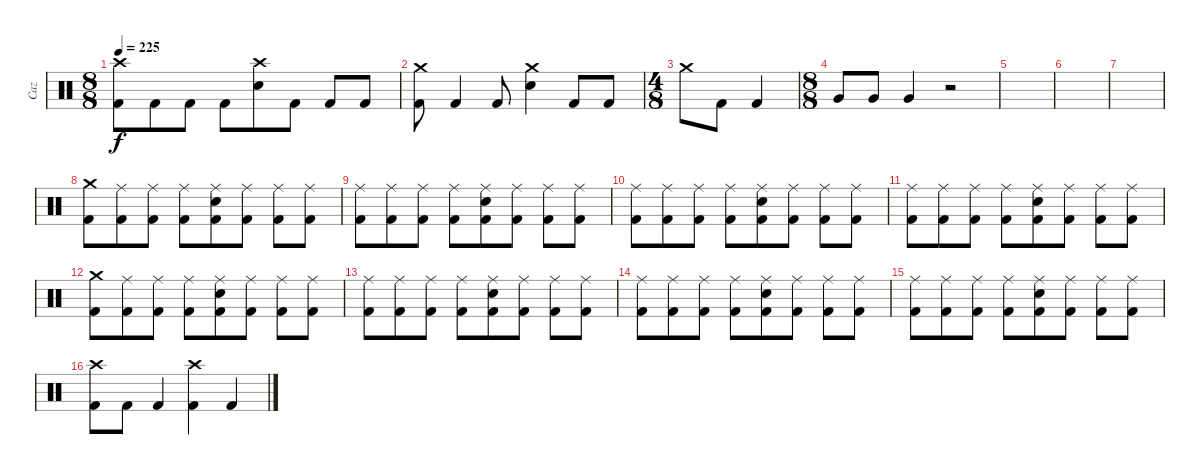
\track ("Caz" "Caz") {instrument percussion}
\staff {score}
\articulation defaults
\ts (8 8)
\tempo 225
\clef neutral
\ks c
("Crash high (hit)" "Kick (hit) 2").8{dy f} "Kick (hit) 2".8 "Kick (hit) 2".8 "Kick (hit) 2".8 ("Crash high (hit)" "Electric Snare (hit)").8 "Kick (hit) 2".8 "Kick (hit) 2".8 "Kick (hit) 2".8 |
("Crash medium (hit)" "Kick (hit) 2").8 "Kick (hit) 2".4 "Kick (hit) 2".8 ("Crash medium (hit)" "Electric Snare (hit)").4 "Kick (hit) 2".8 "Kick (hit) 2".8 |
\ts (4 8)
"Crash medium (hit)".8 "Kick (hit) 2".8 "Kick (hit) 2".4 |
\ts (8 8)
"Very Low Tom (hit)".8 "Very Low Tom (hit)".8 "Very Low Tom (hit)".4 r.2 |
|
|
|
("Crash medium (hit)" "Kick (hit) 2").8 ("Ride (middle)" "Kick (hit) 2").8 ("Ride (middle)" "Kick (hit) 2").8 ("Ride (middle)" "Kick (hit) 2").8 ("Ride (middle)" "Electric Snare (hit)" "Kick (hit) 2").8 ("Ride (middle)" "Kick (hit) 2").8 ("Ride (middle)" "Kick (hit) 2").8 ("Ride (middle)" "Kick (hit) 2").8 |
("Ride (middle)" "Kick (hit) 2").8 ("Ride (middle)" "Kick (hit) 2").8 ("Ride (middle)" "Kick (hit) 2").8 ("Ride (middle)" "Kick (hit) 2").8 ("Ride (middle)" "Electric Snare (hit)" "Kick (hit) 2").8 ("Ride (middle)" "Kick (hit) 2").8 ("Ride (middle)" "Kick (hit) 2").8 ("Ride (middle)" "Kick (hit) 2").8 |
("Ride (middle)" "Kick (hit) 2").8 ("Ride (middle)" "Kick (hit) 2").8 ("Ride (middle)" "Kick (hit) 2").8 ("Ride (middle)" "Kick (hit) 2").8 ("Ride (middle)" "Electric Snare (hit)" "Kick (hit) 2").8 ("Ride (middle)" "Kick (hit) 2").8 ("Ride (middle)" "Kick (hit) 2").8 ("Ride (middle)" "Kick (hit) 2").8 |
("Ride (middle)" "Kick (hit) 2").8 ("Ride (middle)" "Kick (hit) 2").8 ("Ride (middle)" "Kick (hit) 2").8 ("Ride (middle)" "Kick (hit) 2").8 ("Ride (middle)" "Electric Snare (hit)" "Kick (hit) 2").8 ("Ride (middle)" "Kick (hit) 2").8 ("Ride (middle)" "Kick (hit) 2").8 ("Ride (middle)" "Kick (hit) 2").8 |
("Crash medium (hit)" "Kick (hit) 2").8 ("Ride (middle)" "Kick (hit) 2").8 ("Ride (middle)" "Kick (hit) 2").8 ("Ride (middle)" "Kick (hit) 2").8 ("Ride (middle)" "Electric Snare (hit)" "Kick (hit) 2").8 ("Ride (middle)" "Kick (hit) 2").8 ("Ride (middle)" "Kick (hit) 2").8 ("Ride (middle)" "Kick (hit) 2").8 |
("Ride (middle)" "Kick (hit) 2").8 ("Ride (middle)" "Kick (hit) 2").8 ("Ride (middle)" "Kick (hit) 2").8 ("Ride (middle)" "Kick (hit) 2").8 ("Ride (middle)" "Electric Snare (hit)" "Kick (hit) 2").8 ("Ride (middle)" "Kick (hit) 2").8 ("Ride (middle)" "Kick (hit) 2").8 ("Ride (middle)" "Kick (hit) 2").8 |
("Ride (middle)" "Kick (hit) 2").8 ("Ride (middle)" "Kick (hit) 2").8 ("Ride (middle)" "Kick (hit) 2").8 ("Ride (middle)" "Kick (hit) 2").8 ("Ride (middle)" "Electric Snare (hit)" "Kick (hit) 2").8 ("Ride (middle)" "Kick (hit) 2").8 ("Ride (middle)" "Kick (hit) 2").8 ("Ride (middle)" "Kick (hit) 2").8 |
("Ride (middle)" "Kick (hit) 2").8 ("Ride (middle)" "Kick (hit) 2").8 ("Ride (middle)" "Kick (hit) 2").8 ("Ride (middle)" "Kick (hit) 2").8 ("Ride (middle)" "Electric Snare (hit)" "Kick (hit) 2").8 ("Ride (middle)" "Kick (hit) 2").8 ("Ride (middle)" "Kick (hit) 2").8 ("Ride (middle)" "Kick (hit) 2").8 |
("Crash high (hit)" "Kick (hit) 2").8 "Kick (hit) 2".8 "Kick (hit) 2".4 ("Crash high (hit)" "Kick (hit) 2").4 "Kick (hit) 2".4
